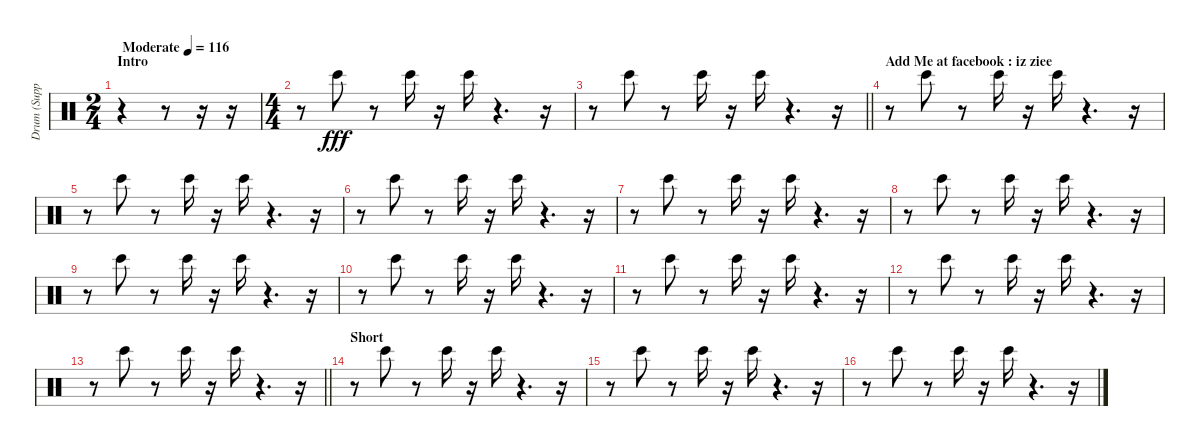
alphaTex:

\track ("Drum (Support)" "Drum (Supp") {instrument percussion}
\staff {score}
\articulation defaults
\ts (2 4)
\section ("" "Intro")
\tempo (116 "Moderate")
\clef neutral
\ks c
r.4{dy fff} r.8 r.16 r.16 |
\ts (4 4)
r.8 "Bongo High (hit)".8 r.8 "Bongo High (hit)".16 r.16 "Bongo High (hit)".16 r.4{d} r.16 |
\barLineRight lightlight
r.8 "Bongo High (hit)".8 r.8 "Bongo High (hit)".16 r.16 "Bongo High (hit)".16 r.4{d} r.16 |
\section ("" "Add Me at facebook : iz ziee")
r.8 "Bongo High (hit)".8 r.8 "Bongo High (hit)".16 r.16 "Bongo High (hit)".16 r.4{d} r.16 |
r.8 "Bongo High (hit)".8 r.8 "Bongo High (hit)".16 r.16 "Bongo High (hit)".16 r.4{d} r.16 |
r.8 "Bongo High (hit)".8 r.8 "Bongo High (hit)".16 r.16 "Bongo High (hit)".16 r.4{d} r.16 |
r.8 "Bongo High (hit)".8 r.8 "Bongo High (hit)".16 r.16 "Bongo High (hit)".16 r.4{d} r.16 |
r.8 "Bongo High (hit)".8 r.8 "Bongo High (hit)".16 r.16 "Bongo High (hit)".16 r.4{d} r.16 |
r.8 "Bongo High (hit)".8 r.8 "Bongo High (hit)".16 r.16 "Bongo High (hit)".16 r.4{d} r.16 |
r.8 "Bongo High (hit)".8 r.8 "Bongo High (hit)".16 r.16 "Bongo High (hit)".16 r.4{d} r.16 |
r.8 "Bongo High (hit)".8 r.8 "Bongo High (hit)".16 r.16 "Bongo High (hit)".16 r.4{d} r.16 |
r.8 "Bongo High (hit)".8 r.8 "Bongo High (hit)".16 r.16 "Bongo High (hit)".16 r.4{d} r.16 |
\barLineRight lightlight
r.8 "Bongo High (hit)".8 r.8 "Bongo High (hit)".16 r.16 "Bongo High (hit)".16 r.4{d} r.16 |
\section ("" "Short")
r.8 "Bongo High (hit)".8 r.8 "Bongo High (hit)".16 r.16 "Bongo High (hit)".16 r.4{d} r.16 |
r.8 "Bongo High (hit)".8 r.8 "Bongo High (hit)".16 r.16 "Bongo High (hit)".16 r.4{d} r.16 |
r.8 "Bongo High (hit)".8 r.8 "Bongo High (hit)".16 r.16 "Bongo High (hit)".16 r.4{d} r.16
